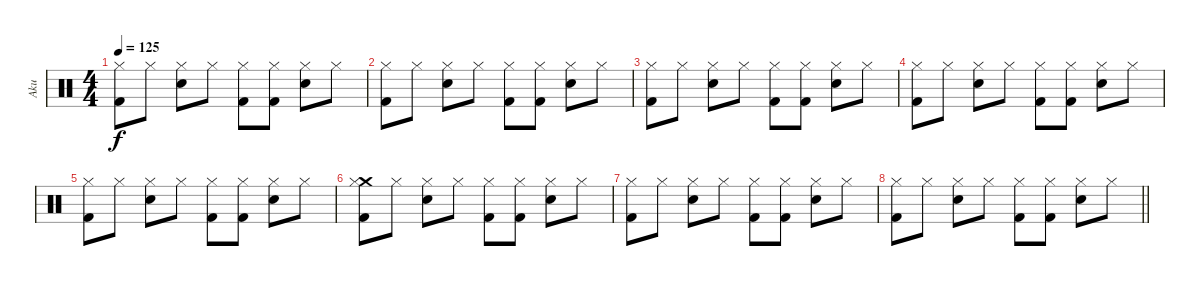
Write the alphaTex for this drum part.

\track ("Aku" "Aku") {instrument percussion}
\staff {score}
\articulation defaults
\ts (4 4)
\tempo 125
\clef neutral
\ks c
("Hi-Hat (closed)" "Kick (hit) 2").8{dy f} "Hi-Hat (closed)".8 ("Hi-Hat (closed)" "Snare (hit) 2").8 "Hi-Hat (closed)".8 ("Hi-Hat (closed)" "Kick (hit) 2").8 ("Hi-Hat (closed)" "Kick (hit) 2").8 ("Hi-Hat (closed)" "Snare (hit) 2").8 "Hi-Hat (closed)".8 |
("Hi-Hat (closed)" "Kick (hit) 2").8 "Hi-Hat (closed)".8 ("Hi-Hat (closed)" "Snare (hit) 2").8 "Hi-Hat (closed)".8 ("Hi-Hat (closed)" "Kick (hit) 2").8 ("Hi-Hat (closed)" "Kick (hit) 2").8 ("Hi-Hat (closed)" "Snare (hit) 2").8 "Hi-Hat (closed)".8 |
("Hi-Hat (closed)" "Kick (hit) 2").8 "Hi-Hat (closed)".8 ("Hi-Hat (closed)" "Snare (hit) 2").8 "Hi-Hat (closed)".8 ("Hi-Hat (closed)" "Kick (hit) 2").8 ("Hi-Hat (closed)" "Kick (hit) 2").8 ("Hi-Hat (closed)" "Snare (hit) 2").8 "Hi-Hat (closed)".8 |
("Hi-Hat (closed)" "Kick (hit) 2").8 "Hi-Hat (closed)".8 ("Hi-Hat (closed)" "Snare (hit) 2").8 "Hi-Hat (closed)".8 ("Hi-Hat (closed)" "Kick (hit) 2").8 ("Hi-Hat (closed)" "Kick (hit) 2").8 ("Hi-Hat (closed)" "Snare (hit) 2").8 "Hi-Hat (closed)".8 |
("Hi-Hat (closed)" "Kick (hit) 2").8{volume 8} "Hi-Hat (closed)".8 ("Hi-Hat (closed)" "Snare (hit) 2").8 "Hi-Hat (closed)".8 ("Hi-Hat (closed)" "Kick (hit) 2").8 ("Hi-Hat (closed)" "Kick (hit) 2").8 ("Hi-Hat (closed)" "Snare (hit) 2").8 "Hi-Hat (closed)".8 |
("Crash medium (hit)" "Hi-Hat (closed)" "Kick (hit) 2").8{volume 6 balance 8} "Hi-Hat (closed)".8 ("Hi-Hat (closed)" "Snare (hit) 2").8 "Hi-Hat (closed)".8 ("Hi-Hat (closed)" "Kick (hit) 2").8 ("Hi-Hat (closed)" "Kick (hit) 2").8 ("Hi-Hat (closed)" "Snare (hit) 2").8 "Hi-Hat (closed)".8 |
("Hi-Hat (closed)" "Kick (hit) 2").8{volume 4} "Hi-Hat (closed)".8 ("Hi-Hat (closed)" "Snare (hit) 2").8 "Hi-Hat (closed)".8 ("Hi-Hat (closed)" "Kick (hit) 2").8 ("Hi-Hat (closed)" "Kick (hit) 2").8 ("Hi-Hat (closed)" "Snare (hit) 2").8 "Hi-Hat (closed)".8 |
\barLineRight lightlight
("Hi-Hat (closed)" "Kick (hit) 2").8{volume 2} "Hi-Hat (closed)".8 ("Hi-Hat (closed)" "Snare (hit) 2").8 "Hi-Hat (closed)".8 ("Hi-Hat (closed)" "Kick (hit) 2").8 ("Hi-Hat (closed)" "Kick (hit) 2").8 ("Hi-Hat (closed)" "Snare (hit) 2").8 "Hi-Hat (closed)".8
